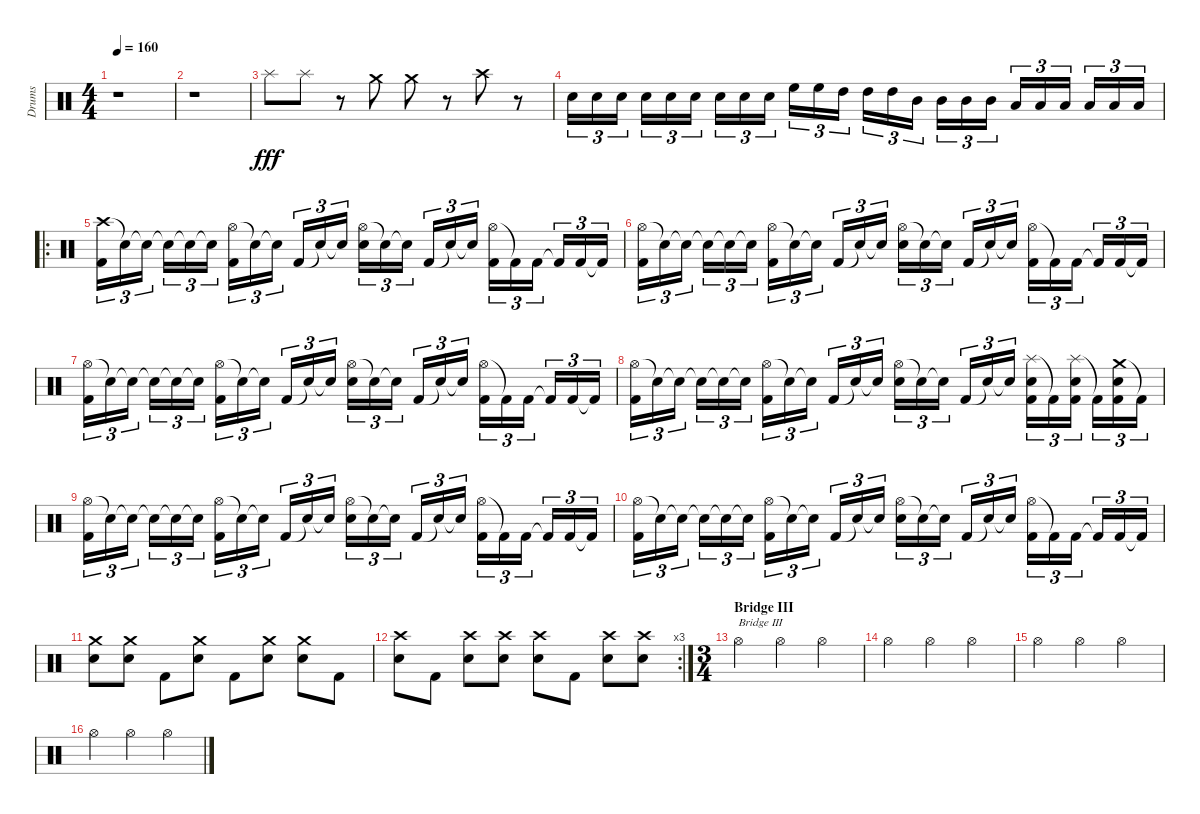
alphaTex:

\track ("Drums" "Drums") {instrument percussion}
\staff {score}
\articulation defaults
\ts (4 4)
\tempo 160
\clef neutral
\ks c
r.1{dy fff} |
r.1 |
"Splash (hit)".8 "Splash (hit)".8 r.8 "Crash medium (hit)".8 "Crash medium (hit)".8 r.8 "Crash high (hit)".8 r.8 |
"Electric Snare (hit)".16{tu (3 2)} "Electric Snare (hit)".16{tu (3 2)} "Electric Snare (hit)".16{tu (3 2)} "Electric Snare (hit)".16{tu (3 2)} "Electric Snare (hit)".16{tu (3 2)} "Electric Snare (hit)".16{tu (3 2)} "Electric Snare (hit)".16{tu (3 2)} "Electric Snare (hit)".16{tu (3 2)} "Electric Snare (hit)".16{tu (3 2)} "High Floor Tom (hit)".16{tu (3 2)} "High Floor Tom (hit)".16{tu (3 2)} "High Tom (hit)".16{tu (3 2)} "High Tom (hit)".16{tu (3 2)} "High Tom (hit)".16{tu (3 2)} "Mid Tom (hit)".16{tu (3 2)} "Mid Tom (hit)".16{tu (3 2)} "Mid Tom (hit)".16{tu (3 2)} "Mid Tom (hit)".16{tu (3 2)} "Low Tom (hit)".16{tu (3 2)} "Low Tom (hit)".16{tu (3 2)} "Low Tom (hit)".16{tu (3 2)} "Low Tom (hit)".16{tu (3 2)} "Low Tom (hit)".16{tu (3 2)} "Low Tom (hit)".16{tu (3 2)} |
\ro
("Crash high (hit)" "Kick (hit) 2").16{tu (3 2)} "Snare (hit)"{t}.16{tu (3 2)} "Snare (hit)"{t}.16{tu (3 2)} "Snare (hit)"{t}.16{tu (3 2)} "Snare (hit)"{t}.16{tu (3 2)} "Snare (hit)"{t}.16{tu (3 2)} ("Hi-Hat (open)" "Kick (hit) 2").16{tu (3 2)} "Snare (hit)"{t}.16{tu (3 2)} "Snare (hit)"{t}.16{tu (3 2)} "Kick (hit) 2".16{tu (3 2)} "Snare (hit)"{t}.16{tu (3 2)} "Snare (hit)"{t}.16{tu (3 2)} ("Hi-Hat (open)" "Electric Snare (hit)").16{tu (3 2)} "Snare (hit)"{t}.16{tu (3 2)} "Snare (hit)"{t}.16{tu (3 2)} "Kick (hit) 2".16{tu (3 2)} "Snare (hit)"{t}.16{tu (3 2)} "Snare (hit)"{t}.16{tu (3 2)} ("Hi-Hat (open)" "Kick (hit) 2").16{tu (3 2)} "Kick (hit) 2"{t}.16{tu (3 2)} "Kick (hit) 2".16{tu (3 2)} "Kick (hit) 2"{t}.16{tu (3 2)} "Kick (hit) 2".16{tu (3 2)} "Kick (hit) 2"{t}.16{tu (3 2)} |
("Hi-Hat (open)" "Kick (hit) 2").16{tu (3 2)} "Snare (hit)"{t}.16{tu (3 2)} "Snare (hit)"{t}.16{tu (3 2)} "Snare (hit)"{t}.16{tu (3 2)} "Snare (hit)"{t}.16{tu (3 2)} "Snare (hit)"{t}.16{tu (3 2)} ("Hi-Hat (open)" "Kick (hit) 2").16{tu (3 2)} "Snare (hit)"{t}.16{tu (3 2)} "Snare (hit)"{t}.16{tu (3 2)} "Kick (hit) 2".16{tu (3 2)} "Snare (hit)"{t}.16{tu (3 2)} "Snare (hit)"{t}.16{tu (3 2)} ("Hi-Hat (open)" "Electric Snare (hit)").16{tu (3 2)} "Snare (hit)"{t}.16{tu (3 2)} "Snare (hit)"{t}.16{tu (3 2)} "Kick (hit) 2".16{tu (3 2)} "Snare (hit)"{t}.16{tu (3 2)} "Snare (hit)"{t}.16{tu (3 2)} ("Hi-Hat (open)" "Kick (hit) 2").16{tu (3 2)} "Kick (hit) 2"{t}.16{tu (3 2)} "Kick (hit) 2".16{tu (3 2)} "Kick (hit) 2"{t}.16{tu (3 2)} "Kick (hit) 2".16{tu (3 2)} "Kick (hit) 2"{t}.16{tu (3 2)} |
("Hi-Hat (open)" "Kick (hit) 2").16{tu (3 2)} "Snare (hit)"{t}.16{tu (3 2)} "Snare (hit)"{t}.16{tu (3 2)} "Snare (hit)"{t}.16{tu (3 2)} "Snare (hit)"{t}.16{tu (3 2)} "Snare (hit)"{t}.16{tu (3 2)} ("Hi-Hat (open)" "Kick (hit) 2").16{tu (3 2)} "Snare (hit)"{t}.16{tu (3 2)} "Snare (hit)"{t}.16{tu (3 2)} "Kick (hit) 2".16{tu (3 2)} "Snare (hit)"{t}.16{tu (3 2)} "Snare (hit)"{t}.16{tu (3 2)} ("Hi-Hat (open)" "Electric Snare (hit)").16{tu (3 2)} "Snare (hit)"{t}.16{tu (3 2)} "Snare (hit)"{t}.16{tu (3 2)} "Kick (hit) 2".16{tu (3 2)} "Snare (hit)"{t}.16{tu (3 2)} "Snare (hit)"{t}.16{tu (3 2)} ("Hi-Hat (open)" "Kick (hit) 2").16{tu (3 2)} "Kick (hit) 2"{t}.16{tu (3 2)} "Kick (hit) 2".16{tu (3 2)} "Kick (hit) 2"{t}.16{tu (3 2)} "Kick (hit) 2".16{tu (3 2)} "Kick (hit) 2"{t}.16{tu (3 2)} |
("Hi-Hat (open)" "Kick (hit) 2").16{tu (3 2)} "Snare (hit)"{t}.16{tu (3 2)} "Snare (hit)"{t}.16{tu (3 2)} "Snare (hit)"{t}.16{tu (3 2)} "Snare (hit)"{t}.16{tu (3 2)} "Snare (hit)"{t}.16{tu (3 2)} ("Hi-Hat (open)" "Kick (hit) 2").16{tu (3 2)} "Snare (hit)"{t}.16{tu (3 2)} "Snare (hit)"{t}.16{tu (3 2)} "Kick (hit) 2".16{tu (3 2)} "Snare (hit)"{t}.16{tu (3 2)} "Snare (hit)"{t}.16{tu (3 2)} ("Hi-Hat (open)" "Electric Snare (hit)").16{tu (3 2)} "Snare (hit)"{t}.16{tu (3 2)} "Snare (hit)"{t}.16{tu (3 2)} "Kick (hit) 2".16{tu (3 2)} "Snare (hit)"{t}.16{tu (3 2)} "Snare (hit)"{t}.16{tu (3 2)} ("Splash (hit)" "Electric Snare (hit)" "Kick (hit) 2").16{tu (3 2)} "Kick (hit) 2"{t}.16{tu (3 2)} ("Splash (hit)" "Electric Snare (hit)" "Kick (hit) 2").16{tu (3 2)} "Kick (hit) 2"{t}.16{tu (3 2)} ("Crash medium (hit)" "Electric Snare (hit)" "Kick (hit) 2").16{tu (3 2)} "Kick (hit) 2"{t}.16{tu (3 2)} |
("Hi-Hat (open)" "Kick (hit) 2").16{tu (3 2)} "Snare (hit)"{t}.16{tu (3 2)} "Snare (hit)"{t}.16{tu (3 2)} "Snare (hit)"{t}.16{tu (3 2)} "Snare (hit)"{t}.16{tu (3 2)} "Snare (hit)"{t}.16{tu (3 2)} ("Hi-Hat (open)" "Kick (hit) 2").16{tu (3 2)} "Snare (hit)"{t}.16{tu (3 2)} "Snare (hit)"{t}.16{tu (3 2)} "Kick (hit) 2".16{tu (3 2)} "Snare (hit)"{t}.16{tu (3 2)} "Snare (hit)"{t}.16{tu (3 2)} ("Hi-Hat (open)" "Electric Snare (hit)").16{tu (3 2)} "Snare (hit)"{t}.16{tu (3 2)} "Snare (hit)"{t}.16{tu (3 2)} "Kick (hit) 2".16{tu (3 2)} "Snare (hit)"{t}.16{tu (3 2)} "Snare (hit)"{t}.16{tu (3 2)} ("Hi-Hat (open)" "Kick (hit) 2").16{tu (3 2)} "Kick (hit) 2"{t}.16{tu (3 2)} "Kick (hit) 2".16{tu (3 2)} "Kick (hit) 2"{t}.16{tu (3 2)} "Kick (hit) 2".16{tu (3 2)} "Kick (hit) 2"{t}.16{tu (3 2)} |
("Hi-Hat (open)" "Kick (hit) 2").16{tu (3 2)} "Snare (hit)"{t}.16{tu (3 2)} "Snare (hit)"{t}.16{tu (3 2)} "Snare (hit)"{t}.16{tu (3 2)} "Snare (hit)"{t}.16{tu (3 2)} "Snare (hit)"{t}.16{tu (3 2)} ("Hi-Hat (open)" "Kick (hit) 2").16{tu (3 2)} "Snare (hit)"{t}.16{tu (3 2)} "Snare (hit)"{t}.16{tu (3 2)} "Kick (hit) 2".16{tu (3 2)} "Snare (hit)"{t}.16{tu (3 2)} "Snare (hit)"{t}.16{tu (3 2)} ("Hi-Hat (open)" "Electric Snare (hit)").16{tu (3 2)} "Snare (hit)"{t}.16{tu (3 2)} "Snare (hit)"{t}.16{tu (3 2)} "Kick (hit) 2".16{tu (3 2)} "Snare (hit)"{t}.16{tu (3 2)} "Snare (hit)"{t}.16{tu (3 2)} ("Hi-Hat (open)" "Kick (hit) 2").16{tu (3 2)} "Kick (hit) 2"{t}.16{tu (3 2)} "Kick (hit) 2".16{tu (3 2)} "Kick (hit) 2"{t}.16{tu (3 2)} "Kick (hit) 2".16{tu (3 2)} "Kick (hit) 2"{t}.16{tu (3 2)} |
("Crash medium (hit)" "Electric Snare (hit)").8 ("Crash medium (hit)" "Electric Snare (hit)").8 "Kick (hit) 2".8 ("Crash medium (hit)" "Electric Snare (hit)").8 "Kick (hit) 2".8 ("Crash medium (hit)" "Electric Snare (hit)").8 ("Crash medium (hit)" "Electric Snare (hit)").8 "Kick (hit) 2".8 |
\rc 3
("Crash high (hit)" "Electric Snare (hit)").8 "Kick (hit) 2".8 ("Crash high (hit)" "Electric Snare (hit)").8 ("Crash high (hit)" "Electric Snare (hit)").8 ("Crash high (hit)" "Electric Snare (hit)").8 "Kick (hit) 2".8 ("Crash high (hit)" "Electric Snare (hit)").8 ("Crash high (hit)" "Electric Snare (hit)").8 |
\ts (3 4)
\section ("" "Bridge III")
"Hi-Hat (open)".4{txt "Bridge III"} "Hi-Hat (open)".4 "Hi-Hat (open)".4 |
"Hi-Hat (open)".4 "Hi-Hat (open)".4 "Hi-Hat (open)".4 |
"Hi-Hat (open)".4 "Hi-Hat (open)".4 "Hi-Hat (open)".4 |
"Hi-Hat (open)".4 "Hi-Hat (open)".4 "Hi-Hat (open)".4
